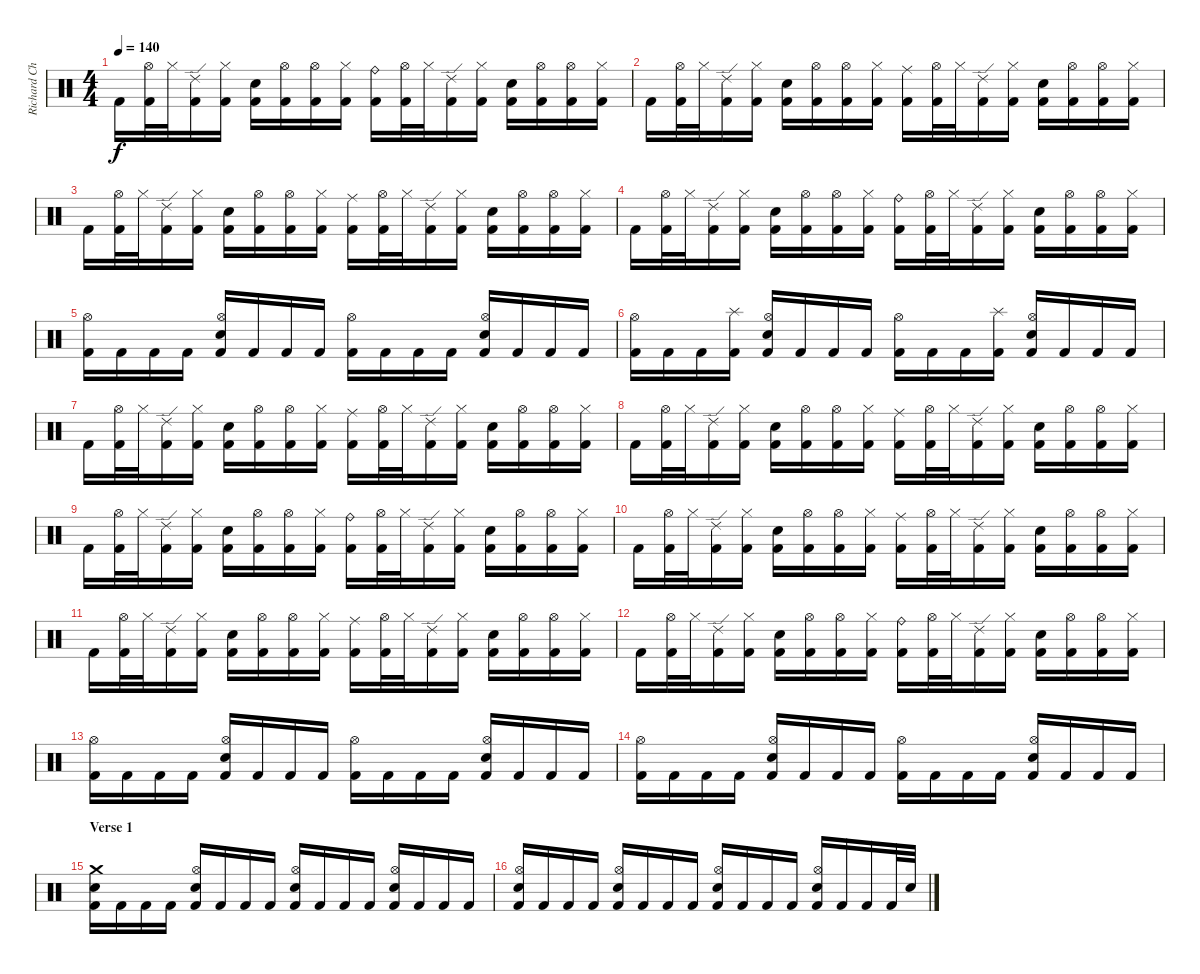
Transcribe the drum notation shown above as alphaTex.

\track ("Richard Christy" "Richard Ch") {instrument percussion}
\staff {score}
\articulation defaults
\ts (4 4)
\tempo 140
\clef neutral
\ks c "Kick (hit) 2".16{dy f}
("Hi-Hat (open)" "Kick (hit) 2").32 "Hi-Hat (closed)".32 ("Ride (edge) 2" "Kick (hit) 2").16 ("Hi-Hat (closed)" "Kick (hit) 2").16 ("Electric Snare (hit)" "Kick (hit) 2").16 ("Hi-Hat (open)" "Kick (hit) 2").16 ("Hi-Hat (open)" "Kick (hit) 2").16 ("Hi-Hat (closed)" "Kick (hit) 2").16 ("Ride (bell)" "Kick (hit) 2").16 ("Hi-Hat (open)" "Kick (hit) 2").32 "Hi-Hat (closed)".32 ("Ride (edge) 2" "Kick (hit) 2").16 ("Hi-Hat (closed)" "Kick (hit) 2").16 ("Electric Snare (hit)" "Kick (hit) 2").16 ("Hi-Hat (open)" "Kick (hit) 2").16 ("Hi-Hat (open)" "Kick (hit) 2").16 ("Hi-Hat (closed)" "Kick (hit) 2").16 |
"Kick (hit) 2".16 ("Hi-Hat (open)" "Kick (hit) 2").32 "Hi-Hat (closed)".32 ("Ride (edge) 2" "Kick (hit) 2").16 ("Hi-Hat (closed)" "Kick (hit) 2").16 ("Electric Snare (hit)" "Kick (hit) 2").16 ("Hi-Hat (open)" "Kick (hit) 2").16 ("Hi-Hat (open)" "Kick (hit) 2").16 ("Hi-Hat (closed)" "Kick (hit) 2").16 ("Ride (middle)" "Kick (hit) 2").16 ("Hi-Hat (open)" "Kick (hit) 2").32 "Hi-Hat (closed)".32 ("Ride (edge) 2" "Kick (hit) 2").16 ("Hi-Hat (closed)" "Kick (hit) 2").16 ("Electric Snare (hit)" "Kick (hit) 2").16 ("Hi-Hat (open)" "Kick (hit) 2").16 ("Hi-Hat (open)" "Kick (hit) 2").16 ("Hi-Hat (closed)" "Kick (hit) 2").16 |
"Kick (hit) 2".16 ("Hi-Hat (open)" "Kick (hit) 2").32 "Hi-Hat (closed)".32 ("Ride (edge) 2" "Kick (hit) 2").16 ("Hi-Hat (closed)" "Kick (hit) 2").16 ("Electric Snare (hit)" "Kick (hit) 2").16 ("Hi-Hat (open)" "Kick (hit) 2").16 ("Hi-Hat (open)" "Kick (hit) 2").16 ("Hi-Hat (closed)" "Kick (hit) 2").16 ("Ride (middle)" "Kick (hit) 2").16 ("Hi-Hat (open)" "Kick (hit) 2").32 "Hi-Hat (closed)".32 ("Ride (edge) 2" "Kick (hit) 2").16 ("Hi-Hat (closed)" "Kick (hit) 2").16 ("Electric Snare (hit)" "Kick (hit) 2").16 ("Hi-Hat (open)" "Kick (hit) 2").16 ("Hi-Hat (open)" "Kick (hit) 2").16 ("Hi-Hat (closed)" "Kick (hit) 2").16 |
"Kick (hit) 2".16 ("Hi-Hat (open)" "Kick (hit) 2").32 "Hi-Hat (closed)".32 ("Ride (edge) 2" "Kick (hit) 2").16 ("Hi-Hat (closed)" "Kick (hit) 2").16 ("Electric Snare (hit)" "Kick (hit) 2").16 ("Hi-Hat (open)" "Kick (hit) 2").16 ("Hi-Hat (open)" "Kick (hit) 2").16 ("Hi-Hat (closed)" "Kick (hit) 2").16 ("Ride (bell)" "Kick (hit) 2").16 ("Hi-Hat (open)" "Kick (hit) 2").32 "Hi-Hat (closed)".32 ("Ride (edge) 2" "Kick (hit) 2").16 ("Hi-Hat (closed)" "Kick (hit) 2").16 ("Electric Snare (hit)" "Kick (hit) 2").16 ("Hi-Hat (open)" "Kick (hit) 2").16 ("Hi-Hat (open)" "Kick (hit) 2").16 ("Hi-Hat (closed)" "Kick (hit) 2").16 |
("Hi-Hat (open)" "Kick (hit) 2").16 "Kick (hit) 2".16 "Kick (hit) 2".16 "Kick (hit) 2".16 ("Hi-Hat (open)" "Electric Snare (hit)" "Kick (hit) 2").16 "Kick (hit) 2".16 "Kick (hit) 2".16 "Kick (hit) 2".16 ("Hi-Hat (open)" "Kick (hit) 2").16 "Kick (hit) 2".16 "Kick (hit) 2".16 "Kick (hit) 2".16 ("Hi-Hat (open)" "Electric Snare (hit)" "Kick (hit) 2").16 "Kick (hit) 2".16 "Kick (hit) 2".16 "Kick (hit) 2".16 |
("Hi-Hat (open)" "Kick (hit) 2").16 "Kick (hit) 2".16 "Kick (hit) 2".16 ("Splash (hit)" "Kick (hit) 2").16 ("Hi-Hat (open)" "Electric Snare (hit)" "Kick (hit) 2").16 "Kick (hit) 2".16 "Kick (hit) 2".16 "Kick (hit) 2".16 ("Hi-Hat (open)" "Kick (hit) 2").16 "Kick (hit) 2".16 "Kick (hit) 2".16 ("Splash (hit)" "Kick (hit) 2").16 ("Hi-Hat (open)" "Electric Snare (hit)" "Kick (hit) 2").16 "Kick (hit) 2".16 "Kick (hit) 2".16 "Kick (hit) 2".16 |
"Kick (hit) 2".16 ("Hi-Hat (open)" "Kick (hit) 2").32 "Hi-Hat (closed)".32 ("Ride (edge) 2" "Kick (hit) 2").16 ("Hi-Hat (closed)" "Kick (hit) 2").16 ("Electric Snare (hit)" "Kick (hit) 2").16 ("Hi-Hat (open)" "Kick (hit) 2").16 ("Hi-Hat (open)" "Kick (hit) 2").16 ("Hi-Hat (closed)" "Kick (hit) 2").16 ("Ride (middle)" "Kick (hit) 2").16 ("Hi-Hat (open)" "Kick (hit) 2").32 "Hi-Hat (closed)".32 ("Ride (edge) 2" "Kick (hit) 2").16 ("Hi-Hat (closed)" "Kick (hit) 2").16 ("Electric Snare (hit)" "Kick (hit) 2").16 ("Hi-Hat (open)" "Kick (hit) 2").16 ("Hi-Hat (open)" "Kick (hit) 2").16 ("Hi-Hat (closed)" "Kick (hit) 2").16 |
"Kick (hit) 2".16 ("Hi-Hat (open)" "Kick (hit) 2").32 "Hi-Hat (closed)".32 ("Ride (edge) 2" "Kick (hit) 2").16 ("Hi-Hat (closed)" "Kick (hit) 2").16 ("Electric Snare (hit)" "Kick (hit) 2").16 ("Hi-Hat (open)" "Kick (hit) 2").16 ("Hi-Hat (open)" "Kick (hit) 2").16 ("Hi-Hat (closed)" "Kick (hit) 2").16 ("Ride (middle)" "Kick (hit) 2").16 ("Hi-Hat (open)" "Kick (hit) 2").32 "Hi-Hat (closed)".32 ("Ride (edge) 2" "Kick (hit) 2").16 ("Hi-Hat (closed)" "Kick (hit) 2").16 ("Electric Snare (hit)" "Kick (hit) 2").16 ("Hi-Hat (open)" "Kick (hit) 2").16 ("Hi-Hat (open)" "Kick (hit) 2").16 ("Hi-Hat (closed)" "Kick (hit) 2").16 |
"Kick (hit) 2".16 ("Hi-Hat (open)" "Kick (hit) 2").32 "Hi-Hat (closed)".32 ("Ride (edge) 2" "Kick (hit) 2").16 ("Hi-Hat (closed)" "Kick (hit) 2").16 ("Electric Snare (hit)" "Kick (hit) 2").16 ("Hi-Hat (open)" "Kick (hit) 2").16 ("Hi-Hat (open)" "Kick (hit) 2").16 ("Hi-Hat (closed)" "Kick (hit) 2").16 ("Ride (bell)" "Kick (hit) 2").16 ("Hi-Hat (open)" "Kick (hit) 2").32 "Hi-Hat (closed)".32 ("Ride (edge) 2" "Kick (hit) 2").16 ("Hi-Hat (closed)" "Kick (hit) 2").16 ("Electric Snare (hit)" "Kick (hit) 2").16 ("Hi-Hat (open)" "Kick (hit) 2").16 ("Hi-Hat (open)" "Kick (hit) 2").16 ("Hi-Hat (closed)" "Kick (hit) 2").16 |
"Kick (hit) 2".16 ("Hi-Hat (open)" "Kick (hit) 2").32 "Hi-Hat (closed)".32 ("Ride (edge) 2" "Kick (hit) 2").16 ("Hi-Hat (closed)" "Kick (hit) 2").16 ("Electric Snare (hit)" "Kick (hit) 2").16 ("Hi-Hat (open)" "Kick (hit) 2").16 ("Hi-Hat (open)" "Kick (hit) 2").16 ("Hi-Hat (closed)" "Kick (hit) 2").16 ("Ride (middle)" "Kick (hit) 2").16 ("Hi-Hat (open)" "Kick (hit) 2").32 "Hi-Hat (closed)".32 ("Ride (edge) 2" "Kick (hit) 2").16 ("Hi-Hat (closed)" "Kick (hit) 2").16 ("Electric Snare (hit)" "Kick (hit) 2").16 ("Hi-Hat (open)" "Kick (hit) 2").16 ("Hi-Hat (open)" "Kick (hit) 2").16 ("Hi-Hat (closed)" "Kick (hit) 2").16 |
"Kick (hit) 2".16 ("Hi-Hat (open)" "Kick (hit) 2").32 "Hi-Hat (closed)".32 ("Ride (edge) 2" "Kick (hit) 2").16 ("Hi-Hat (closed)" "Kick (hit) 2").16 ("Electric Snare (hit)" "Kick (hit) 2").16 ("Hi-Hat (open)" "Kick (hit) 2").16 ("Hi-Hat (open)" "Kick (hit) 2").16 ("Hi-Hat (closed)" "Kick (hit) 2").16 ("Ride (middle)" "Kick (hit) 2").16 ("Hi-Hat (open)" "Kick (hit) 2").32 "Hi-Hat (closed)".32 ("Ride (edge) 2" "Kick (hit) 2").16 ("Hi-Hat (closed)" "Kick (hit) 2").16 ("Electric Snare (hit)" "Kick (hit) 2").16 ("Hi-Hat (open)" "Kick (hit) 2").16 ("Hi-Hat (open)" "Kick (hit) 2").16 ("Hi-Hat (closed)" "Kick (hit) 2").16 |
"Kick (hit) 2".16 ("Hi-Hat (open)" "Kick (hit) 2").32 "Hi-Hat (closed)".32 ("Ride (edge) 2" "Kick (hit) 2").16 ("Hi-Hat (closed)" "Kick (hit) 2").16 ("Electric Snare (hit)" "Kick (hit) 2").16 ("Hi-Hat (open)" "Kick (hit) 2").16 ("Hi-Hat (open)" "Kick (hit) 2").16 ("Hi-Hat (closed)" "Kick (hit) 2").16 ("Ride (bell)" "Kick (hit) 2").16 ("Hi-Hat (open)" "Kick (hit) 2").32 "Hi-Hat (closed)".32 ("Ride (edge) 2" "Kick (hit) 2").16 ("Hi-Hat (closed)" "Kick (hit) 2").16 ("Electric Snare (hit)" "Kick (hit) 2").16 ("Hi-Hat (open)" "Kick (hit) 2").16 ("Hi-Hat (open)" "Kick (hit) 2").16 ("Hi-Hat (closed)" "Kick (hit) 2").16 |
("Hi-Hat (open)" "Kick (hit) 2").16 "Kick (hit) 2".16 "Kick (hit) 2".16 "Kick (hit) 2".16 ("Hi-Hat (open)" "Electric Snare (hit)" "Kick (hit) 2").16 "Kick (hit) 2".16 "Kick (hit) 2".16 "Kick (hit) 2".16 ("Hi-Hat (open)" "Kick (hit) 2").16 "Kick (hit) 2".16 "Kick (hit) 2".16 "Kick (hit) 2".16 ("Hi-Hat (open)" "Electric Snare (hit)" "Kick (hit) 2").16 "Kick (hit) 2".16 "Kick (hit) 2".16 "Kick (hit) 2".16 |
("Hi-Hat (open)" "Kick (hit) 2").16 "Kick (hit) 2".16 "Kick (hit) 2".16 "Kick (hit) 2".16 ("Hi-Hat (open)" "Electric Snare (hit)" "Kick (hit) 2").16 "Kick (hit) 2".16 "Kick (hit) 2".16 "Kick (hit) 2".16 ("Hi-Hat (open)" "Kick (hit) 2").16 "Kick (hit) 2".16 "Kick (hit) 2".16 "Kick (hit) 2".16 ("Hi-Hat (open)" "Electric Snare (hit)" "Kick (hit) 2").16 "Kick (hit) 2".16 "Kick (hit) 2".16 "Kick (hit) 2".16 |
\section ("" "Verse 1")
("Crash medium (hit)" "Electric Snare (hit)" "Kick (hit) 2").16 "Kick (hit) 2".16 "Kick (hit) 2".16 "Kick (hit) 2".16 ("Hi-Hat (open)" "Electric Snare (hit)" "Kick (hit) 2").16 "Kick (hit) 2".16 "Kick (hit) 2".16 "Kick (hit) 2".16 ("Hi-Hat (open)" "Electric Snare (hit)" "Kick (hit) 2").16 "Kick (hit) 2".16 "Kick (hit) 2".16 "Kick (hit) 2".16 ("Hi-Hat (open)" "Electric Snare (hit)" "Kick (hit) 2").16 "Kick (hit) 2".16 "Kick (hit) 2".16 "Kick (hit) 2".16 |
("Hi-Hat (open)" "Electric Snare (hit)" "Kick (hit) 2").16 "Kick (hit) 2".16 "Kick (hit) 2".16 "Kick (hit) 2".16 ("Hi-Hat (open)" "Electric Snare (hit)" "Kick (hit) 2").16 "Kick (hit) 2".16 "Kick (hit) 2".16 "Kick (hit) 2".16 ("Hi-Hat (open)" "Electric Snare (hit)" "Kick (hit) 2").16 "Kick (hit) 2".16 "Kick (hit) 2".16 "Kick (hit) 2".16 ("Hi-Hat (open)" "Electric Snare (hit)" "Kick (hit) 2").16 "Kick (hit) 2".16 "Kick (hit) 2".16 "Kick (hit) 2".32 "Electric Snare (hit)".32
